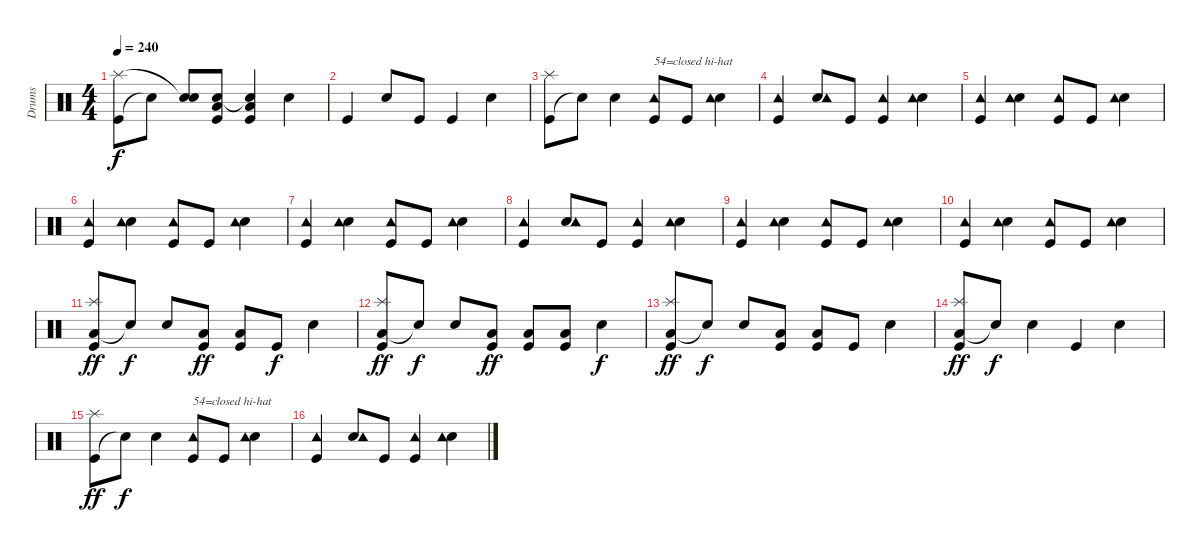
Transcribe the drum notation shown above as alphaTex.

\track ("Drums" "Drums") {instrument percussion}
\staff {score}
\articulation defaults
\ts (4 4)
\tempo 240
\clef neutral
\ks c
("Kick (hit)" "Splash (hit)").8{dy f} "Snare (hit)"{t}.8 ("Snare (hit) 2" "Snare (hit)"{t}).8 ("Low Floor Tom (hit)" "Kick (hit)" "Snare (hit)").8 ("Low Floor Tom (hit)" "Kick (hit)" "Snare (hit)"{t}).4 "Snare (hit) 2".4 |
"Kick (hit)".4 "Snare (hit) 2".8 "Kick (hit)".8 "Kick (hit)".4 "Snare (hit) 2".4 |
("Kick (hit)" "Splash (hit)").8 "Snare (hit)"{t}.8 "Snare (hit) 2".4 ("Kick (hit)" "Tambourine (hit)").8{txt "54=closed hi-hat"} "Kick (hit)".8 ("Snare (hit) 2" "Tambourine (hit)").4 |
("Kick (hit)" "Tambourine (hit)").4 ("Snare (hit) 2" "Tambourine (hit)").8 "Kick (hit)".8 ("Kick (hit)" "Tambourine (hit)").4 ("Snare (hit) 2" "Tambourine (hit)").4 |
("Kick (hit)" "Tambourine (hit)").4 ("Snare (hit) 2" "Tambourine (hit)").4 ("Kick (hit)" "Tambourine (hit)").8 "Kick (hit)".8 ("Snare (hit) 2" "Tambourine (hit)").4 |
("Kick (hit)" "Tambourine (hit)").4 ("Snare (hit) 2" "Tambourine (hit)").4 ("Kick (hit)" "Tambourine (hit)").8 "Kick (hit)".8 ("Snare (hit) 2" "Tambourine (hit)").4 |
("Kick (hit)" "Tambourine (hit)").4 ("Snare (hit) 2" "Tambourine (hit)").4 ("Kick (hit)" "Tambourine (hit)").8 "Kick (hit)".8 ("Snare (hit) 2" "Tambourine (hit)").4 |
("Kick (hit)" "Tambourine (hit)").4 ("Snare (hit) 2" "Tambourine (hit)").8 "Kick (hit)".8 ("Kick (hit)" "Tambourine (hit)").4 ("Snare (hit) 2" "Tambourine (hit)").4 |
("Kick (hit)" "Tambourine (hit)").4 ("Snare (hit) 2" "Tambourine (hit)").4 ("Kick (hit)" "Tambourine (hit)").8 "Kick (hit)".8 ("Snare (hit) 2" "Tambourine (hit)").4 |
("Kick (hit)" "Tambourine (hit)").4 ("Snare (hit) 2" "Tambourine (hit)").4 ("Kick (hit)" "Tambourine (hit)").8 "Kick (hit)".8 ("Snare (hit) 2" "Tambourine (hit)").4 |
("Low Floor Tom (hit)" "Kick (hit)" "Splash (hit)").8{dy ff} "Snare (hit)"{t}.8{dy f} "Snare (hit) 2".8 ("Low Floor Tom (hit)" "Kick (hit)").8{dy ff} ("Low Floor Tom (hit)" "Kick (hit)").8 "Kick (hit)".8{dy f} "Snare (hit) 2".4 |
("Low Floor Tom (hit)" "Kick (hit)" "Splash (hit)").8{dy ff} "Snare (hit)"{t}.8{dy f} "Snare (hit) 2".8 ("Low Floor Tom (hit)" "Kick (hit)").8{dy ff} ("Low Floor Tom (hit)" "Kick (hit)").8 ("Low Floor Tom (hit)" "Kick (hit)").8 "Snare (hit) 2".4{dy f} |
("Low Floor Tom (hit)" "Kick (hit)" "Splash (hit)").8{dy ff} "Snare (hit)"{t}.8{dy f} "Snare (hit) 2".8 ("Low Floor Tom (hit)" "Kick (hit)").8 ("Low Floor Tom (hit)" "Kick (hit)").8 "Kick (hit)".8 "Snare (hit) 2".4 |
("Low Floor Tom (hit)" "Kick (hit)" "Splash (hit)").8{dy ff} "Snare (hit)"{t}.8{dy f} "Snare (hit) 2".4 "Kick (hit)".4 "Snare (hit) 2".4 |
("Kick (hit)" "Splash (hit)").8{dy ff} "Snare (hit)"{t}.8{dy f} "Snare (hit) 2".4 ("Kick (hit)" "Tambourine (hit)").8{txt "54=closed hi-hat"} "Kick (hit)".8 ("Snare (hit) 2" "Tambourine (hit)").4 |
("Kick (hit)" "Tambourine (hit)").4 ("Snare (hit) 2" "Tambourine (hit)").8 "Kick (hit)".8 ("Kick (hit)" "Tambourine (hit)").4 ("Snare (hit) 2" "Tambourine (hit)").4
